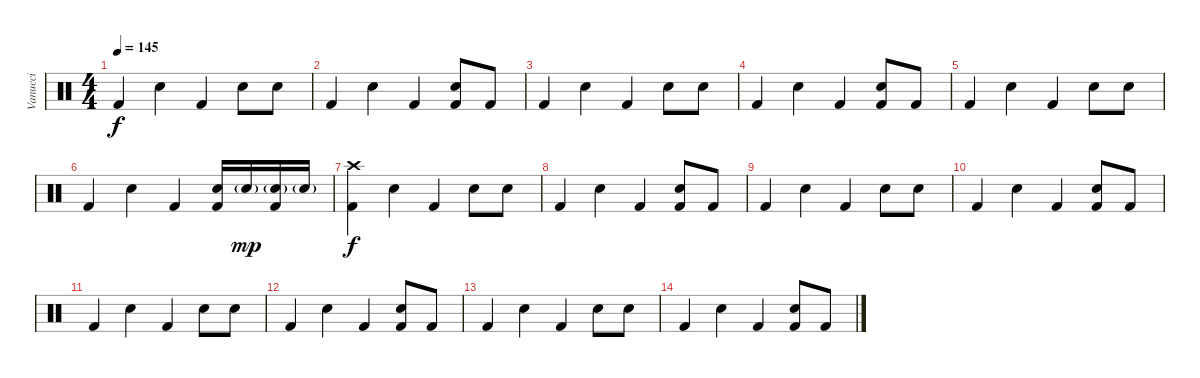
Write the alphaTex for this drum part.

\track ("Vanucci" "Vanucci") {instrument percussion}
\staff {score}
\articulation defaults
\ts (4 4)
\tempo 145
\clef neutral
\ks c "Kick (hit) 2".4{dy f} "Electric Snare (hit)".4 "Kick (hit) 2".4 "Electric Snare (hit)".8 "Electric Snare (hit)".8
|
"Kick (hit) 2".4 "Electric Snare (hit)".4 "Kick (hit) 2".4 ("Electric Snare (hit)" "Kick (hit) 2").8 "Kick (hit) 2".8 |
"Kick (hit) 2".4 "Electric Snare (hit)".4 "Kick (hit) 2".4 "Electric Snare (hit)".8 "Electric Snare (hit)".8 |
"Kick (hit) 2".4 "Electric Snare (hit)".4 "Kick (hit) 2".4 ("Electric Snare (hit)" "Kick (hit) 2").8 "Kick (hit) 2".8 |
"Kick (hit) 2".4 "Electric Snare (hit)".4 "Kick (hit) 2".4 "Electric Snare (hit)".8 "Electric Snare (hit)".8 |
"Kick (hit) 2".4 "Electric Snare (hit)".4 "Kick (hit) 2".4 ("Electric Snare (hit)" "Kick (hit) 2").16 "Electric Snare (hit)"{g}.16{dy mp} ("Electric Snare (hit)"{g} "Kick (hit) 2").16 "Electric Snare (hit)"{g}.16 |
("Crash high (hit)" "Kick (hit) 2").4{dy f} "Electric Snare (hit)".4 "Kick (hit) 2".4 "Electric Snare (hit)".8 "Electric Snare (hit)".8 |
"Kick (hit) 2".4 "Electric Snare (hit)".4 "Kick (hit) 2".4 ("Electric Snare (hit)" "Kick (hit) 2").8 "Kick (hit) 2".8 |
"Kick (hit) 2".4 "Electric Snare (hit)".4 "Kick (hit) 2".4 "Electric Snare (hit)".8 "Electric Snare (hit)".8 |
"Kick (hit) 2".4 "Electric Snare (hit)".4 "Kick (hit) 2".4 ("Electric Snare (hit)" "Kick (hit) 2").8 "Kick (hit) 2".8 |
"Kick (hit) 2".4 "Electric Snare (hit)".4 "Kick (hit) 2".4 "Electric Snare (hit)".8 "Electric Snare (hit)".8 |
"Kick (hit) 2".4 "Electric Snare (hit)".4 "Kick (hit) 2".4 ("Electric Snare (hit)" "Kick (hit) 2").8 "Kick (hit) 2".8 |
"Kick (hit) 2".4 "Electric Snare (hit)".4 "Kick (hit) 2".4 "Electric Snare (hit)".8 "Electric Snare (hit)".8 |
"Kick (hit) 2".4 "Electric Snare (hit)".4 "Kick (hit) 2".4 ("Electric Snare (hit)" "Kick (hit) 2").8 "Kick (hit) 2".8
